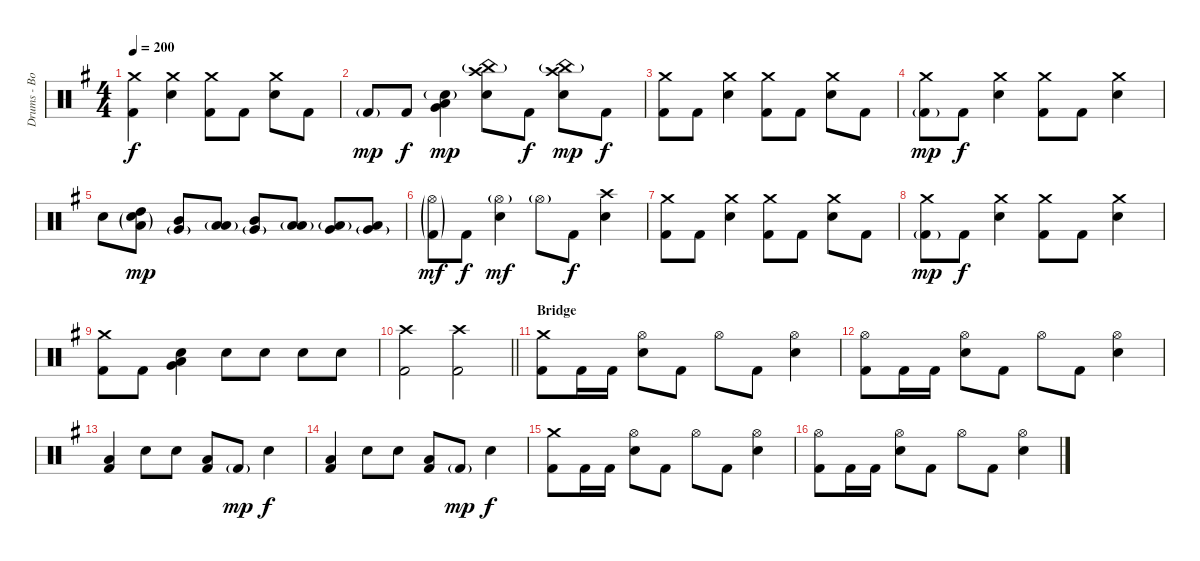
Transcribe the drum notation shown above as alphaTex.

\track ("Drums - Bob Bryar" "Drums - Bo") {instrument percussion}
\staff {score}
\articulation defaults
\ts (4 4)
\tempo 200
\clef neutral
\ks eminor
("Kick (hit) 2" "Crash medium (hit)").4{dy f} ("Electric Snare (hit)" "Crash medium (hit)").4 ("Kick (hit) 2" "Crash medium (hit)").8 "Kick (hit) 2".8 ("Electric Snare (hit)" "Crash medium (hit)").8 "Kick (hit) 2".8 |
"Kick (hit) 2"{g}.8{dy mp} "Kick (hit) 2".8{dy f} ("Electric Snare (hit)"{g} "Very Low Tom (hit)" "Low Floor Tom (hit)").4{dy mp} ("Electric Snare (hit)" "Crash high (hit)" "China (hit)"{g}).8 "Kick (hit) 2".8{dy f} ("Electric Snare (hit)" "Crash high (hit)" "China (hit)"{g}).8{dy mp} "Kick (hit) 2".8{dy f} |
("Kick (hit) 2" "Crash medium (hit)").8 "Kick (hit) 2".8 ("Electric Snare (hit)" "Crash medium (hit)").4 ("Kick (hit) 2" "Crash medium (hit)").8 "Kick (hit) 2".8 ("Electric Snare (hit)" "Crash medium (hit)").8 "Kick (hit) 2".8 |
("Kick (hit) 2"{g} "Crash medium (hit)").8{dy mp} "Kick (hit) 2".8{dy f} ("Electric Snare (hit)" "Crash medium (hit)").4 ("Kick (hit) 2" "Crash medium (hit)").8 "Kick (hit) 2".8 ("Electric Snare (hit)" "Crash medium (hit)").4 |
"Electric Snare (hit)".8 ("Electric Snare (hit)"{g} "High Tom (hit)" "Low Tom (hit)"{g}).8{dy mp} ("Mid Tom (hit)" "Very Low Tom (hit)"{g}).8 ("Low Tom (hit)" "Low Floor Tom (hit)"{g}).8 ("Mid Tom (hit)" "Very Low Tom (hit)"{g}).8 ("Low Tom (hit)" "Low Floor Tom (hit)"{g}).8 ("Very Low Tom (hit)" "Low Tom (hit)"{g}).8 ("Low Floor Tom (hit)" "Very Low Tom (hit)"{g}).8 |
("Kick (hit) 2"{g} "Hi-Hat (open)"{g}).8{dy mf} "Kick (hit) 2".8{dy f} ("Electric Snare (hit)" "Hi-Hat (open)"{g}).4{dy mf} "Hi-Hat (open)"{g}.8 "Kick (hit) 2".8{dy f} ("Electric Snare (hit)" "Crash high (hit)").4 |
("Kick (hit) 2" "Crash medium (hit)").8 "Kick (hit) 2".8 ("Electric Snare (hit)" "Crash medium (hit)").4 ("Kick (hit) 2" "Crash medium (hit)").8 "Kick (hit) 2".8 ("Electric Snare (hit)" "Crash medium (hit)").8 "Kick (hit) 2".8 |
("Kick (hit) 2"{g} "Crash medium (hit)").8{dy mp} "Kick (hit) 2".8{dy f} ("Electric Snare (hit)" "Crash medium (hit)").4 ("Kick (hit) 2" "Crash medium (hit)").8 "Kick (hit) 2".8 ("Electric Snare (hit)" "Crash medium (hit)").4 |
("Kick (hit) 2" "Crash medium (hit)").8 "Kick (hit) 2".8 ("Electric Snare (hit)" "Low Floor Tom (hit)" "Very Low Tom (hit)").4 "Electric Snare (hit)".8 "Electric Snare (hit)".8 "Electric Snare (hit)".8 "Electric Snare (hit)".8 |
\barLineRight lightlight
("Kick (hit) 2" "Crash high (hit)").2 ("Kick (hit) 2" "Crash high (hit)").2 |
\section ("" "Bridge")
("Kick (hit) 2" "Crash medium (hit)").8 "Kick (hit) 2".16 "Kick (hit) 2".16 ("Electric Snare (hit)" "Hi-Hat (open)").8 "Kick (hit) 2".8 "Hi-Hat (open)".8 "Kick (hit) 2".8 ("Electric Snare (hit)" "Hi-Hat (open)").4 |
("Kick (hit) 2" "Hi-Hat (open)").8 "Kick (hit) 2".16 "Kick (hit) 2".16 ("Electric Snare (hit)" "Hi-Hat (open)").8 "Kick (hit) 2".8 "Hi-Hat (open)".8 "Kick (hit) 2".8 ("Electric Snare (hit)" "Hi-Hat (open)").4 |
("Kick (hit) 2" "Low Floor Tom (hit)").4 "Electric Snare (hit)".8 "Electric Snare (hit)".8 ("Kick (hit) 2" "Low Floor Tom (hit)").8 "Kick (hit) 2"{g}.8{dy mp} "Electric Snare (hit)".4{dy f} |
("Kick (hit) 2" "Low Floor Tom (hit)").4 "Electric Snare (hit)".8 "Electric Snare (hit)".8 ("Kick (hit) 2" "Low Floor Tom (hit)").8 "Kick (hit) 2"{g}.8{dy mp} "Electric Snare (hit)".4{dy f} |
("Kick (hit) 2" "Crash medium (hit)").8 "Kick (hit) 2".16 "Kick (hit) 2".16 ("Electric Snare (hit)" "Hi-Hat (open)").8 "Kick (hit) 2".8 "Hi-Hat (open)".8 "Kick (hit) 2".8 ("Electric Snare (hit)" "Hi-Hat (open)").4 |
("Kick (hit) 2" "Hi-Hat (open)").8 "Kick (hit) 2".16 "Kick (hit) 2".16 ("Electric Snare (hit)" "Hi-Hat (open)").8 "Kick (hit) 2".8 "Hi-Hat (open)".8 "Kick (hit) 2".8 ("Electric Snare (hit)" "Hi-Hat (open)").4
